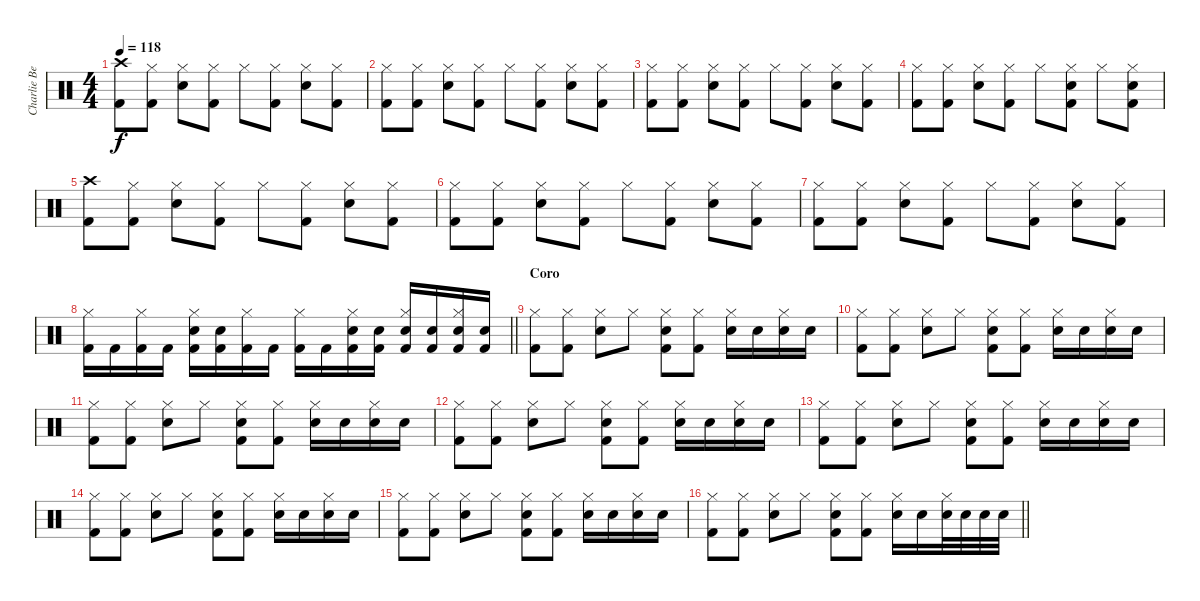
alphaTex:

\track ("Charlie Benante" "Charlie Be") {instrument percussion}
\staff {score}
\articulation defaults
\ts (4 4)
\tempo 118
\clef neutral
\ks c
("Crash high (hit)" "Kick (hit) 2").8{dy f} ("Hi-Hat (closed)" "Kick (hit) 2").8 ("Hi-Hat (closed)" "Snare (hit) 2").8 ("Hi-Hat (closed)" "Kick (hit) 2").8 "Hi-Hat (closed)".8 ("Hi-Hat (closed)" "Kick (hit) 2").8 ("Hi-Hat (closed)" "Snare (hit) 2").8 ("Hi-Hat (closed)" "Kick (hit) 2").8 |
("Hi-Hat (closed)" "Kick (hit) 2").8 ("Hi-Hat (closed)" "Kick (hit) 2").8 ("Hi-Hat (closed)" "Snare (hit) 2").8 ("Hi-Hat (closed)" "Kick (hit) 2").8 "Hi-Hat (closed)".8 ("Hi-Hat (closed)" "Kick (hit) 2").8 ("Hi-Hat (closed)" "Snare (hit) 2").8 ("Hi-Hat (closed)" "Kick (hit) 2").8 |
("Hi-Hat (closed)" "Kick (hit) 2").8 ("Hi-Hat (closed)" "Kick (hit) 2").8 ("Hi-Hat (closed)" "Snare (hit) 2").8 ("Hi-Hat (closed)" "Kick (hit) 2").8 "Hi-Hat (closed)".8 ("Hi-Hat (closed)" "Kick (hit) 2").8 ("Hi-Hat (closed)" "Snare (hit) 2").8 ("Hi-Hat (closed)" "Kick (hit) 2").8 |
("Hi-Hat (closed)" "Kick (hit) 2").8 ("Hi-Hat (closed)" "Kick (hit) 2").8 ("Hi-Hat (closed)" "Snare (hit) 2").8 ("Hi-Hat (closed)" "Kick (hit) 2").8 "Hi-Hat (closed)".8 ("Hi-Hat (closed)" "Snare (hit) 2" "Kick (hit) 2").8 "Hi-Hat (closed)".8 ("Hi-Hat (closed)" "Snare (hit) 2" "Kick (hit) 2").8 |
("Crash high (hit)" "Kick (hit) 2").8 ("Hi-Hat (closed)" "Kick (hit) 2").8 ("Hi-Hat (closed)" "Snare (hit) 2").8 ("Hi-Hat (closed)" "Kick (hit) 2").8 "Hi-Hat (closed)".8 ("Hi-Hat (closed)" "Kick (hit) 2").8 ("Hi-Hat (closed)" "Snare (hit) 2").8 ("Hi-Hat (closed)" "Kick (hit) 2").8 |
("Hi-Hat (closed)" "Kick (hit) 2").8 ("Hi-Hat (closed)" "Kick (hit) 2").8 ("Hi-Hat (closed)" "Snare (hit) 2").8 ("Hi-Hat (closed)" "Kick (hit) 2").8 "Hi-Hat (closed)".8 ("Hi-Hat (closed)" "Kick (hit) 2").8 ("Hi-Hat (closed)" "Snare (hit) 2").8 ("Hi-Hat (closed)" "Kick (hit) 2").8 |
("Hi-Hat (closed)" "Kick (hit) 2").8 ("Hi-Hat (closed)" "Kick (hit) 2").8 ("Hi-Hat (closed)" "Snare (hit) 2").8 ("Hi-Hat (closed)" "Kick (hit) 2").8 "Hi-Hat (closed)".8 ("Hi-Hat (closed)" "Kick (hit) 2").8 ("Hi-Hat (closed)" "Snare (hit) 2").8 ("Hi-Hat (closed)" "Kick (hit) 2").8 |
\barLineRight lightlight
("Hi-Hat (closed)" "Kick (hit) 2").16 "Kick (hit) 2".16 ("Hi-Hat (closed)" "Kick (hit) 2").16 "Kick (hit) 2".16 ("Hi-Hat (closed)" "Snare (hit) 2" "Kick (hit) 2").16 ("Snare (hit) 2" "Kick (hit) 2").16 ("Hi-Hat (closed)" "Kick (hit) 2").16 "Kick (hit) 2".16 ("Hi-Hat (closed)" "Kick (hit) 2").16 "Kick (hit) 2".16 ("Hi-Hat (closed)" "Snare (hit) 2" "Kick (hit) 2").16 ("Snare (hit) 2" "Kick (hit) 2").16 ("Hi-Hat (closed)" "Snare (hit) 2" "Kick (hit) 2").16 ("Snare (hit) 2" "Kick (hit) 2").16 ("Hi-Hat (closed)" "Snare (hit) 2" "Kick (hit) 2").16 ("Snare (hit) 2" "Kick (hit) 2").16 |
\section ("" "Coro")
("Hi-Hat (closed)" "Kick (hit) 2").8 ("Hi-Hat (closed)" "Kick (hit) 2").8 ("Hi-Hat (closed)" "Snare (hit) 2").8 "Hi-Hat (closed)".8 ("Hi-Hat (closed)" "Snare (hit) 2" "Kick (hit) 2").8 ("Hi-Hat (closed)" "Kick (hit) 2").8 ("Hi-Hat (closed)" "Snare (hit) 2").16 "Snare (hit) 2".16 ("Hi-Hat (closed)" "Snare (hit) 2").16 "Snare (hit) 2".16 |
("Hi-Hat (closed)" "Kick (hit) 2").8 ("Hi-Hat (closed)" "Kick (hit) 2").8 ("Hi-Hat (closed)" "Snare (hit) 2").8 "Hi-Hat (closed)".8 ("Hi-Hat (closed)" "Snare (hit) 2" "Kick (hit) 2").8 ("Hi-Hat (closed)" "Kick (hit) 2").8 ("Hi-Hat (closed)" "Snare (hit) 2").16 "Snare (hit) 2".16 ("Hi-Hat (closed)" "Snare (hit) 2").16 "Snare (hit) 2".16 |
("Hi-Hat (closed)" "Kick (hit) 2").8 ("Hi-Hat (closed)" "Kick (hit) 2").8 ("Hi-Hat (closed)" "Snare (hit) 2").8 "Hi-Hat (closed)".8 ("Hi-Hat (closed)" "Snare (hit) 2" "Kick (hit) 2").8 ("Hi-Hat (closed)" "Kick (hit) 2").8 ("Hi-Hat (closed)" "Snare (hit) 2").16 "Snare (hit) 2".16 ("Hi-Hat (closed)" "Snare (hit) 2").16 "Snare (hit) 2".16 |
("Hi-Hat (closed)" "Kick (hit) 2").8 ("Hi-Hat (closed)" "Kick (hit) 2").8 ("Hi-Hat (closed)" "Snare (hit) 2").8 "Hi-Hat (closed)".8 ("Hi-Hat (closed)" "Snare (hit) 2" "Kick (hit) 2").8 ("Hi-Hat (closed)" "Kick (hit) 2").8 ("Hi-Hat (closed)" "Snare (hit) 2").16 "Snare (hit) 2".16 ("Hi-Hat (closed)" "Snare (hit) 2").16 "Snare (hit) 2".16 |
("Hi-Hat (closed)" "Kick (hit) 2").8 ("Hi-Hat (closed)" "Kick (hit) 2").8 ("Hi-Hat (closed)" "Snare (hit) 2").8 "Hi-Hat (closed)".8 ("Hi-Hat (closed)" "Snare (hit) 2" "Kick (hit) 2").8 ("Hi-Hat (closed)" "Kick (hit) 2").8 ("Hi-Hat (closed)" "Snare (hit) 2").16 "Snare (hit) 2".16 ("Hi-Hat (closed)" "Snare (hit) 2").16 "Snare (hit) 2".16 |
("Hi-Hat (closed)" "Kick (hit) 2").8 ("Hi-Hat (closed)" "Kick (hit) 2").8 ("Hi-Hat (closed)" "Snare (hit) 2").8 "Hi-Hat (closed)".8 ("Hi-Hat (closed)" "Snare (hit) 2" "Kick (hit) 2").8 ("Hi-Hat (closed)" "Kick (hit) 2").8 ("Hi-Hat (closed)" "Snare (hit) 2").16 "Snare (hit) 2".16 ("Hi-Hat (closed)" "Snare (hit) 2").16 "Snare (hit) 2".16 |
("Hi-Hat (closed)" "Kick (hit) 2").8 ("Hi-Hat (closed)" "Kick (hit) 2").8 ("Hi-Hat (closed)" "Snare (hit) 2").8 "Hi-Hat (closed)".8 ("Hi-Hat (closed)" "Snare (hit) 2" "Kick (hit) 2").8 ("Hi-Hat (closed)" "Kick (hit) 2").8 ("Hi-Hat (closed)" "Snare (hit) 2").16 "Snare (hit) 2".16 ("Hi-Hat (closed)" "Snare (hit) 2").16 "Snare (hit) 2".16 |
\barLineRight lightlight
("Hi-Hat (closed)" "Kick (hit) 2").8 ("Hi-Hat (closed)" "Kick (hit) 2").8 ("Hi-Hat (closed)" "Snare (hit) 2").8 "Hi-Hat (closed)".8 ("Hi-Hat (closed)" "Snare (hit) 2" "Kick (hit) 2").8 ("Hi-Hat (closed)" "Kick (hit) 2").8 ("Hi-Hat (closed)" "Snare (hit) 2").16 "Snare (hit) 2".16 ("Hi-Hat (closed)" "Snare (hit) 2").32 "Snare (hit) 2".32 "Snare (hit) 2".32 "Snare (hit) 2".32
